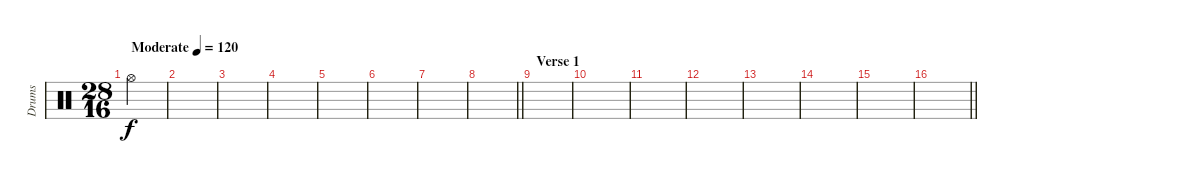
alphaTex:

\track ("Drums" "Drums") {instrument percussion}
\staff {score}
\articulation defaults
\ts (28 16)
\tempo (120 "Moderate")
\clef neutral
\ks c "Hi-Hat (open)".4{dy f}
|
|
|
|
|
|
|
\barLineRight lightlight
|
\section ("" "Verse 1")
|
|
|
|
|
|
|
\barLineRight lightlight
